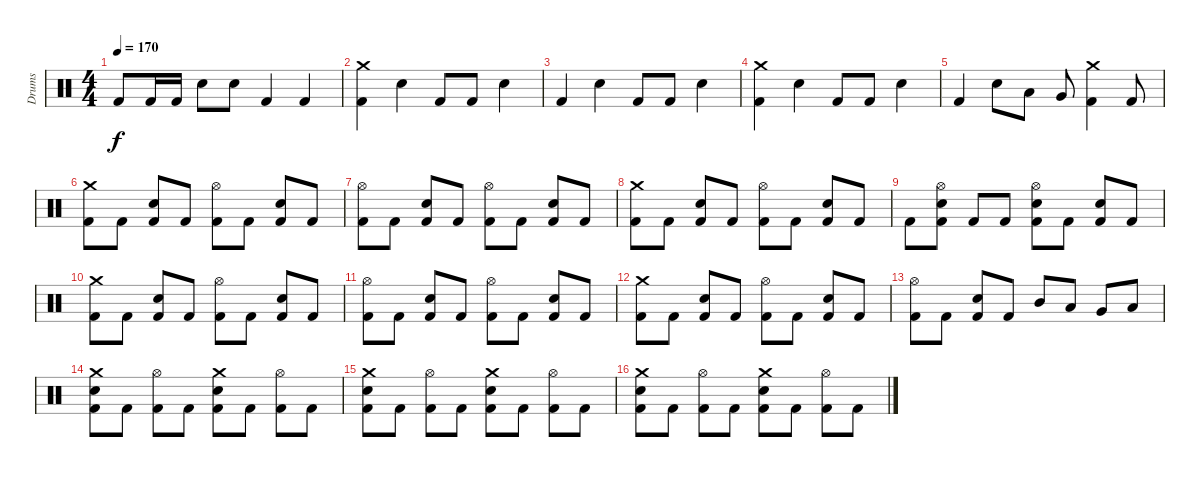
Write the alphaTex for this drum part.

\track ("Drums" "Drums") {instrument percussion}
\staff {score}
\articulation defaults
\ts (4 4)
\tempo 170
\clef neutral
\ks c "Kick (hit) 2".8{dy f} "Kick (hit) 2".16 "Kick (hit) 2".16 "Snare (hit) 2".8 "Snare (hit) 2".8 "Kick (hit) 2".4 "Kick (hit) 2".4
|
("Crash medium (hit)" "Kick (hit) 2").4 "Snare (hit) 2".4 "Kick (hit) 2".8 "Kick (hit) 2".8 "Snare (hit) 2".4 |
"Kick (hit) 2".4 "Snare (hit) 2".4 "Kick (hit) 2".8 "Kick (hit) 2".8 "Snare (hit) 2".4 |
("Crash medium (hit)" "Kick (hit) 2").4 "Snare (hit) 2".4 "Kick (hit) 2".8 "Kick (hit) 2".8 "Snare (hit) 2".4 |
"Kick (hit) 2".4 "Snare (hit) 2".8 "Low Tom (hit)".8 "Very Low Tom (hit)".8 ("Crash medium (hit)" "Kick (hit) 2").4 "Kick (hit) 2".8 |
("Crash medium (hit)" "Kick (hit) 2").8 "Kick (hit) 2".8 ("Snare (hit) 2" "Kick (hit) 2").8 "Kick (hit) 2".8 ("Hi-Hat (open)" "Kick (hit) 2").8 "Kick (hit) 2".8 ("Snare (hit) 2" "Kick (hit) 2").8 "Kick (hit) 2".8 |
("Hi-Hat (open)" "Kick (hit) 2").8 "Kick (hit) 2".8 ("Snare (hit) 2" "Kick (hit) 2").8 "Kick (hit) 2".8 ("Hi-Hat (open)" "Kick (hit) 2").8 "Kick (hit) 2".8 ("Snare (hit) 2" "Kick (hit) 2").8 "Kick (hit) 2".8 |
("Crash medium (hit)" "Kick (hit) 2").8 "Kick (hit) 2".8 ("Snare (hit) 2" "Kick (hit) 2").8 "Kick (hit) 2".8 ("Hi-Hat (open)" "Kick (hit) 2").8 "Kick (hit) 2".8 ("Snare (hit) 2" "Kick (hit) 2").8 "Kick (hit) 2".8 |
"Kick (hit) 2".8 ("Snare (hit) 2" "Hi-Hat (open)" "Kick (hit) 2").8 "Kick (hit) 2".8 "Kick (hit) 2".8 ("Snare (hit) 2" "Hi-Hat (open)" "Kick (hit) 2").8 "Kick (hit) 2".8 ("Snare (hit) 2" "Kick (hit) 2").8 "Kick (hit) 2".8 |
("Crash medium (hit)" "Kick (hit) 2").8 "Kick (hit) 2".8 ("Snare (hit) 2" "Kick (hit) 2").8 "Kick (hit) 2".8 ("Hi-Hat (open)" "Kick (hit) 2").8 "Kick (hit) 2".8 ("Snare (hit) 2" "Kick (hit) 2").8 "Kick (hit) 2".8 |
("Hi-Hat (open)" "Kick (hit) 2").8 "Kick (hit) 2".8 ("Snare (hit) 2" "Kick (hit) 2").8 "Kick (hit) 2".8 ("Hi-Hat (open)" "Kick (hit) 2").8 "Kick (hit) 2".8 ("Snare (hit) 2" "Kick (hit) 2").8 "Kick (hit) 2".8 |
("Crash medium (hit)" "Kick (hit) 2").8 "Kick (hit) 2".8 ("Snare (hit) 2" "Kick (hit) 2").8 "Kick (hit) 2".8 ("Hi-Hat (open)" "Kick (hit) 2").8 "Kick (hit) 2".8 ("Snare (hit) 2" "Kick (hit) 2").8 "Kick (hit) 2".8 |
("Hi-Hat (open)" "Kick (hit) 2").8 "Kick (hit) 2".8 ("Snare (hit) 2" "Kick (hit) 2").8 "Kick (hit) 2".8 "Mid Tom (hit)".8 "Low Tom (hit)".8 "Very Low Tom (hit)".8 "Low Floor Tom (hit)".8 |
("Snare (hit) 2" "Crash medium (hit)" "Kick (hit) 2").8 "Kick (hit) 2".8 ("Hi-Hat (open)" "Kick (hit) 2").8 "Kick (hit) 2".8 ("Snare (hit) 2" "Crash medium (hit)" "Kick (hit) 2").8 "Kick (hit) 2".8 ("Hi-Hat (open)" "Kick (hit) 2").8 "Kick (hit) 2".8 |
("Snare (hit) 2" "Crash medium (hit)" "Kick (hit) 2").8 "Kick (hit) 2".8 ("Hi-Hat (open)" "Kick (hit) 2").8 "Kick (hit) 2".8 ("Snare (hit) 2" "Crash medium (hit)" "Kick (hit) 2").8 "Kick (hit) 2".8 ("Hi-Hat (open)" "Kick (hit) 2").8 "Kick (hit) 2".8 |
("Snare (hit) 2" "Crash medium (hit)" "Kick (hit) 2").8 "Kick (hit) 2".8 ("Hi-Hat (open)" "Kick (hit) 2").8 "Kick (hit) 2".8 ("Snare (hit) 2" "Crash medium (hit)" "Kick (hit) 2").8 "Kick (hit) 2".8 ("Hi-Hat (open)" "Kick (hit) 2").8 "Kick (hit) 2".8
